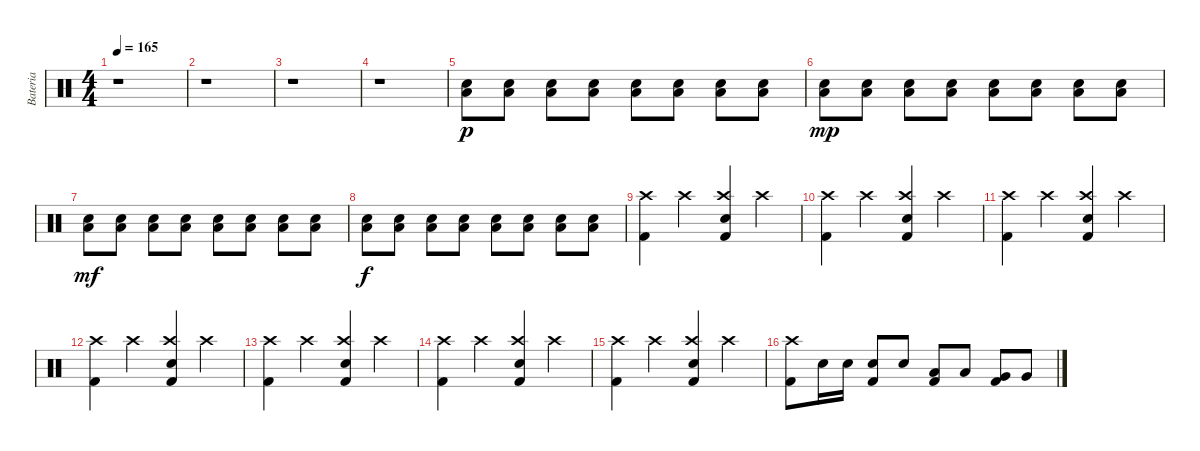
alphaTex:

\track ("Bateria" "Bateria") {instrument percussion}
\staff {score}
\articulation defaults
\ts (4 4)
\tempo 165
\clef neutral
\ks c
r.1{dy p} |
r.1 |
r.1 |
r.1 |
("Snare (hit) 2" "Low Floor Tom (hit)").8 ("Snare (hit) 2" "Low Floor Tom (hit)").8 ("Snare (hit) 2" "Low Floor Tom (hit)").8 ("Snare (hit) 2" "Low Floor Tom (hit)").8 ("Snare (hit) 2" "Low Floor Tom (hit)").8 ("Snare (hit) 2" "Low Floor Tom (hit)").8 ("Snare (hit) 2" "Low Floor Tom (hit)").8 ("Snare (hit) 2" "Low Floor Tom (hit)").8 |
("Snare (hit) 2" "Low Floor Tom (hit)").8{dy mp} ("Snare (hit) 2" "Low Floor Tom (hit)").8 ("Snare (hit) 2" "Low Floor Tom (hit)").8 ("Snare (hit) 2" "Low Floor Tom (hit)").8 ("Snare (hit) 2" "Low Floor Tom (hit)").8 ("Snare (hit) 2" "Low Floor Tom (hit)").8 ("Snare (hit) 2" "Low Floor Tom (hit)").8 ("Snare (hit) 2" "Low Floor Tom (hit)").8 |
("Snare (hit) 2" "Low Floor Tom (hit)").8{dy mf} ("Snare (hit) 2" "Low Floor Tom (hit)").8 ("Snare (hit) 2" "Low Floor Tom (hit)").8 ("Snare (hit) 2" "Low Floor Tom (hit)").8 ("Snare (hit) 2" "Low Floor Tom (hit)").8 ("Snare (hit) 2" "Low Floor Tom (hit)").8 ("Snare (hit) 2" "Low Floor Tom (hit)").8 ("Snare (hit) 2" "Low Floor Tom (hit)").8 |
("Snare (hit) 2" "Low Floor Tom (hit)").8{dy f} ("Snare (hit) 2" "Low Floor Tom (hit)").8 ("Snare (hit) 2" "Low Floor Tom (hit)").8 ("Snare (hit) 2" "Low Floor Tom (hit)").8 ("Snare (hit) 2" "Low Floor Tom (hit)").8 ("Snare (hit) 2" "Low Floor Tom (hit)").8 ("Snare (hit) 2" "Low Floor Tom (hit)").8 ("Snare (hit) 2" "Low Floor Tom (hit)").8 |
("Crash high (hit)" "Kick (hit) 2").4 "Crash high (hit)".4 ("Crash high (hit)" "Kick (hit) 2" "Snare (hit) 2").4 "Crash high (hit)".4 |
("Crash high (hit)" "Kick (hit) 2").4 "Crash high (hit)".4 ("Crash high (hit)" "Kick (hit) 2" "Snare (hit) 2").4 "Crash high (hit)".4 |
("Crash high (hit)" "Kick (hit) 2").4 "Crash high (hit)".4 ("Crash high (hit)" "Kick (hit) 2" "Snare (hit) 2").4 "Crash high (hit)".4 |
("Crash high (hit)" "Kick (hit) 2").4 "Crash high (hit)".4 ("Crash high (hit)" "Kick (hit) 2" "Snare (hit) 2").4 "Crash high (hit)".4 |
("Crash high (hit)" "Kick (hit) 2").4 "Crash high (hit)".4 ("Crash high (hit)" "Kick (hit) 2" "Snare (hit) 2").4 "Crash high (hit)".4 |
("Crash high (hit)" "Kick (hit) 2").4 "Crash high (hit)".4 ("Crash high (hit)" "Kick (hit) 2" "Snare (hit) 2").4 "Crash high (hit)".4 |
("Crash high (hit)" "Kick (hit) 2").4 "Crash high (hit)".4 ("Crash high (hit)" "Kick (hit) 2" "Snare (hit) 2").4 "Crash high (hit)".4 |
("Crash high (hit)" "Kick (hit) 2").8 "Snare (hit) 2".16 "Snare (hit) 2".16 ("Snare (hit) 2" "Kick (hit) 2").8 "Snare (hit) 2".8 ("Low Tom (hit)" "Kick (hit) 2").8 "Low Tom (hit)".8 ("Very Low Tom (hit)" "Kick (hit) 2").8 "Very Low Tom (hit)".8
